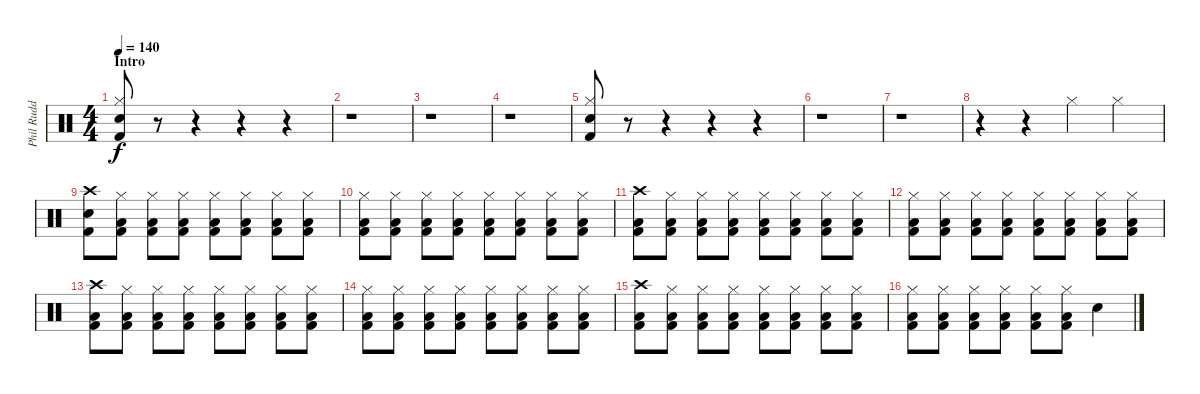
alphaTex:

\track ("Phil Rudd" "Phil Rudd") {instrument percussion}
\staff {score}
\articulation defaults
\ts (4 4)
\section ("" "Intro")
\tempo 140
\clef neutral
\ks c
("Snare (hit) 2" "Hi-Hat (closed)" "Kick (hit) 2").8{dy f} r.8 r.4 r.4 r.4 |
r.1 |
r.1 |
r.1 |
("Snare (hit) 2" "Hi-Hat (closed)" "Kick (hit) 2").8 r.8 r.4 r.4 r.4 |
r.1 |
r.1 |
r.4 r.4 "Hi-Hat (closed)".4 "Hi-Hat (closed)".4 |
("Snare (hit) 2" "Crash high (hit)" "Kick (hit) 2").8 ("Hi-Hat (closed)" "Kick (hit) 2" "Low Floor Tom (hit)").8 ("Hi-Hat (closed)" "Kick (hit) 2" "Low Floor Tom (hit)").8 ("Hi-Hat (closed)" "Kick (hit) 2" "Low Floor Tom (hit)").8 ("Hi-Hat (closed)" "Kick (hit) 2" "Low Floor Tom (hit)").8 ("Hi-Hat (closed)" "Kick (hit) 2" "Low Floor Tom (hit)").8 ("Hi-Hat (closed)" "Kick (hit) 2" "Low Floor Tom (hit)").8 ("Hi-Hat (closed)" "Kick (hit) 2" "Low Floor Tom (hit)").8 |
("Hi-Hat (closed)" "Kick (hit) 2" "Low Floor Tom (hit)").8 ("Hi-Hat (closed)" "Kick (hit) 2" "Low Floor Tom (hit)").8 ("Hi-Hat (closed)" "Kick (hit) 2" "Low Floor Tom (hit)").8 ("Hi-Hat (closed)" "Kick (hit) 2" "Low Floor Tom (hit)").8 ("Hi-Hat (closed)" "Kick (hit) 2" "Low Floor Tom (hit)").8 ("Hi-Hat (closed)" "Kick (hit) 2" "Low Floor Tom (hit)").8 ("Hi-Hat (closed)" "Kick (hit) 2" "Low Floor Tom (hit)").8 ("Hi-Hat (closed)" "Kick (hit) 2" "Low Floor Tom (hit)").8 |
("Crash high (hit)" "Kick (hit) 2" "Low Floor Tom (hit)").8 ("Hi-Hat (closed)" "Kick (hit) 2" "Low Floor Tom (hit)").8 ("Hi-Hat (closed)" "Kick (hit) 2" "Low Floor Tom (hit)").8 ("Hi-Hat (closed)" "Kick (hit) 2" "Low Floor Tom (hit)").8 ("Hi-Hat (closed)" "Kick (hit) 2" "Low Floor Tom (hit)").8 ("Hi-Hat (closed)" "Kick (hit) 2" "Low Floor Tom (hit)").8 ("Hi-Hat (closed)" "Kick (hit) 2" "Low Floor Tom (hit)").8 ("Hi-Hat (closed)" "Kick (hit) 2" "Low Floor Tom (hit)").8 |
("Hi-Hat (closed)" "Kick (hit) 2" "Low Floor Tom (hit)").8 ("Hi-Hat (closed)" "Kick (hit) 2" "Low Floor Tom (hit)").8 ("Hi-Hat (closed)" "Kick (hit) 2" "Low Floor Tom (hit)").8 ("Hi-Hat (closed)" "Kick (hit) 2" "Low Floor Tom (hit)").8 ("Hi-Hat (closed)" "Kick (hit) 2" "Low Floor Tom (hit)").8 ("Hi-Hat (closed)" "Kick (hit) 2" "Low Floor Tom (hit)").8 ("Hi-Hat (closed)" "Kick (hit) 2" "Low Floor Tom (hit)").8 ("Hi-Hat (closed)" "Kick (hit) 2" "Low Floor Tom (hit)").8 |
("Crash high (hit)" "Kick (hit) 2" "Low Floor Tom (hit)").8 ("Hi-Hat (closed)" "Kick (hit) 2" "Low Floor Tom (hit)").8 ("Hi-Hat (closed)" "Kick (hit) 2" "Low Floor Tom (hit)").8 ("Hi-Hat (closed)" "Kick (hit) 2" "Low Floor Tom (hit)").8 ("Hi-Hat (closed)" "Kick (hit) 2" "Low Floor Tom (hit)").8 ("Hi-Hat (closed)" "Kick (hit) 2" "Low Floor Tom (hit)").8 ("Hi-Hat (closed)" "Kick (hit) 2" "Low Floor Tom (hit)").8 ("Hi-Hat (closed)" "Kick (hit) 2" "Low Floor Tom (hit)").8 |
("Hi-Hat (closed)" "Kick (hit) 2" "Low Floor Tom (hit)").8 ("Hi-Hat (closed)" "Kick (hit) 2" "Low Floor Tom (hit)").8 ("Hi-Hat (closed)" "Kick (hit) 2" "Low Floor Tom (hit)").8 ("Hi-Hat (closed)" "Kick (hit) 2" "Low Floor Tom (hit)").8 ("Hi-Hat (closed)" "Kick (hit) 2" "Low Floor Tom (hit)").8 ("Hi-Hat (closed)" "Kick (hit) 2" "Low Floor Tom (hit)").8 ("Hi-Hat (closed)" "Kick (hit) 2" "Low Floor Tom (hit)").8 ("Hi-Hat (closed)" "Kick (hit) 2" "Low Floor Tom (hit)").8 |
("Crash high (hit)" "Kick (hit) 2" "Low Floor Tom (hit)").8 ("Hi-Hat (closed)" "Kick (hit) 2" "Low Floor Tom (hit)").8 ("Hi-Hat (closed)" "Kick (hit) 2" "Low Floor Tom (hit)").8 ("Hi-Hat (closed)" "Kick (hit) 2" "Low Floor Tom (hit)").8 ("Hi-Hat (closed)" "Kick (hit) 2" "Low Floor Tom (hit)").8 ("Hi-Hat (closed)" "Kick (hit) 2" "Low Floor Tom (hit)").8 ("Hi-Hat (closed)" "Kick (hit) 2" "Low Floor Tom (hit)").8 ("Hi-Hat (closed)" "Kick (hit) 2" "Low Floor Tom (hit)").8 |
("Hi-Hat (closed)" "Kick (hit) 2" "Low Floor Tom (hit)").8 ("Hi-Hat (closed)" "Kick (hit) 2" "Low Floor Tom (hit)").8 ("Hi-Hat (closed)" "Kick (hit) 2" "Low Floor Tom (hit)").8 ("Hi-Hat (closed)" "Kick (hit) 2" "Low Floor Tom (hit)").8 ("Hi-Hat (closed)" "Kick (hit) 2" "Low Floor Tom (hit)").8 ("Hi-Hat (closed)" "Kick (hit) 2" "Low Floor Tom (hit)").8 "Snare (hit) 2".4
